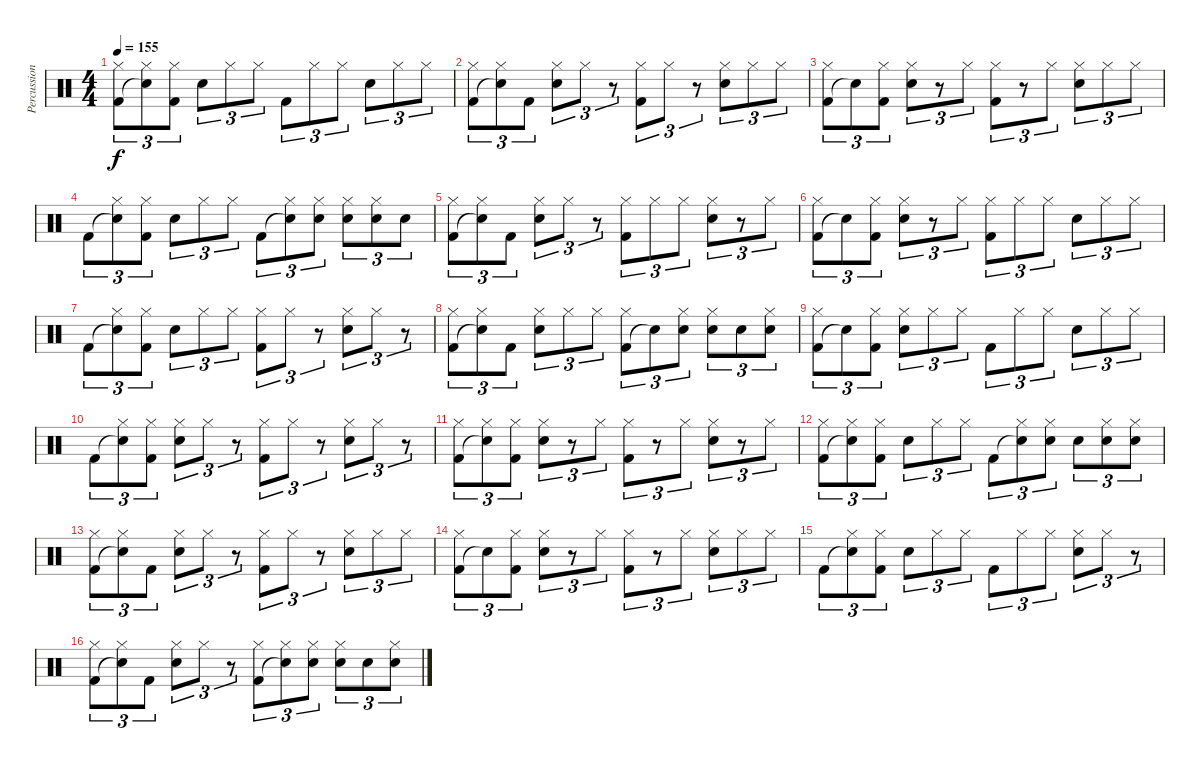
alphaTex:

\track ("Percussion" "Percussion") {instrument percussion}
\staff {score}
\articulation defaults
\ts (4 4)
\tempo 155
\clef neutral
\ks c
("Kick (hit) 2" "Hi-Hat (closed)").8{tu (3 2) dy f} ("Snare (hit)"{t} "Hi-Hat (closed)").8{tu (3 2)} ("Kick (hit) 2" "Hi-Hat (closed)").8{tu (3 2)} "Snare (hit) 2".8{tu (3 2)} "Hi-Hat (closed)".8{tu (3 2)} "Hi-Hat (closed)".8{tu (3 2)} "Kick (hit) 2".8{tu (3 2)} "Hi-Hat (closed)".8{tu (3 2)} "Hi-Hat (closed)".8{tu (3 2)} "Snare (hit) 2".8{tu (3 2)} "Hi-Hat (closed)".8{tu (3 2)} "Hi-Hat (closed)".8{tu (3 2)} |
("Kick (hit) 2" "Hi-Hat (closed)").8{tu (3 2)} ("Snare (hit)"{t} "Hi-Hat (closed)").8{tu (3 2)} "Kick (hit) 2".8{tu (3 2)} ("Snare (hit) 2" "Hi-Hat (closed)").8{tu (3 2)} "Hi-Hat (closed)".8{tu (3 2)} r.8{tu (3 2)} ("Kick (hit) 2" "Hi-Hat (closed)").8{tu (3 2)} "Hi-Hat (closed)".8{tu (3 2)} r.8{tu (3 2)} ("Snare (hit) 2" "Hi-Hat (closed)").8{tu (3 2)} "Hi-Hat (closed)".8{tu (3 2)} "Hi-Hat (closed)".8{tu (3 2)} |
("Kick (hit) 2" "Hi-Hat (closed)").8{tu (3 2)} "Snare (hit)"{t}.8{tu (3 2)} ("Kick (hit) 2" "Hi-Hat (closed)").8{tu (3 2)} ("Snare (hit) 2" "Hi-Hat (closed)").8{tu (3 2)} r.8{tu (3 2)} "Hi-Hat (closed)".8{tu (3 2)} ("Kick (hit) 2" "Hi-Hat (closed)").8{tu (3 2)} r.8{tu (3 2)} "Hi-Hat (closed)".8{tu (3 2)} ("Snare (hit) 2" "Hi-Hat (closed)").8{tu (3 2)} "Hi-Hat (closed)".8{tu (3 2)} "Hi-Hat (closed)".8{tu (3 2)} |
"Kick (hit) 2".8{tu (3 2)} ("Snare (hit)"{t} "Hi-Hat (closed)").8{tu (3 2)} ("Kick (hit) 2" "Hi-Hat (closed)").8{tu (3 2)} "Snare (hit) 2".8{tu (3 2)} "Hi-Hat (closed)".8{tu (3 2)} "Hi-Hat (closed)".8{tu (3 2)} "Kick (hit) 2".8{tu (3 2)} ("Snare (hit)"{t} "Hi-Hat (closed)").8{tu (3 2)} ("Snare (hit) 2" "Hi-Hat (closed)").8{tu (3 2)} ("Snare (hit) 2" "Hi-Hat (closed)").8{tu (3 2)} ("Snare (hit) 2" "Hi-Hat (closed)").8{tu (3 2)} "Snare (hit) 2".8{tu (3 2)} |
("Kick (hit) 2" "Hi-Hat (closed)").8{tu (3 2)} ("Snare (hit)"{t} "Hi-Hat (closed)").8{tu (3 2)} "Kick (hit) 2".8{tu (3 2)} ("Snare (hit) 2" "Hi-Hat (closed)").8{tu (3 2)} "Hi-Hat (closed)".8{tu (3 2)} r.8{tu (3 2)} ("Kick (hit) 2" "Hi-Hat (closed)").8{tu (3 2)} "Hi-Hat (closed)".8{tu (3 2)} "Hi-Hat (closed)".8{tu (3 2)} ("Snare (hit) 2" "Hi-Hat (closed)").8{tu (3 2)} r.8{tu (3 2)} "Hi-Hat (closed)".8{tu (3 2)} |
("Kick (hit) 2" "Hi-Hat (closed)").8{tu (3 2)} "Snare (hit)"{t}.8{tu (3 2)} ("Kick (hit) 2" "Hi-Hat (closed)").8{tu (3 2)} ("Snare (hit) 2" "Hi-Hat (closed)").8{tu (3 2)} r.8{tu (3 2)} "Hi-Hat (closed)".8{tu (3 2)} ("Kick (hit) 2" "Hi-Hat (closed)").8{tu (3 2)} "Hi-Hat (closed)".8{tu (3 2)} "Hi-Hat (closed)".8{tu (3 2)} "Snare (hit) 2".8{tu (3 2)} "Hi-Hat (closed)".8{tu (3 2)} "Hi-Hat (closed)".8{tu (3 2)} |
"Kick (hit) 2".8{tu (3 2)} ("Snare (hit)"{t} "Hi-Hat (closed)").8{tu (3 2)} ("Kick (hit) 2" "Hi-Hat (closed)").8{tu (3 2)} "Snare (hit) 2".8{tu (3 2)} "Hi-Hat (closed)".8{tu (3 2)} "Hi-Hat (closed)".8{tu (3 2)} ("Kick (hit) 2" "Hi-Hat (closed)").8{tu (3 2)} "Hi-Hat (closed)".8{tu (3 2)} r.8{tu (3 2)} ("Snare (hit) 2" "Hi-Hat (closed)").8{tu (3 2)} "Hi-Hat (closed)".8{tu (3 2)} r.8{tu (3 2)} |
("Kick (hit) 2" "Hi-Hat (closed)").8{tu (3 2)} ("Snare (hit)"{t} "Hi-Hat (closed)").8{tu (3 2)} "Kick (hit) 2".8{tu (3 2)} ("Snare (hit) 2" "Hi-Hat (closed)").8{tu (3 2)} "Hi-Hat (closed)".8{tu (3 2)} "Hi-Hat (closed)".8{tu (3 2)} ("Kick (hit) 2" "Hi-Hat (closed)").8{tu (3 2)} "Snare (hit)"{t}.8{tu (3 2)} ("Snare (hit) 2" "Hi-Hat (closed)").8{tu (3 2)} ("Snare (hit) 2" "Hi-Hat (closed)").8{tu (3 2)} "Snare (hit) 2".8{tu (3 2)} ("Snare (hit) 2" "Hi-Hat (closed)").8{tu (3 2)} |
("Kick (hit) 2" "Hi-Hat (closed)").8{tu (3 2)} "Snare (hit)"{t}.8{tu (3 2)} ("Kick (hit) 2" "Hi-Hat (closed)").8{tu (3 2)} ("Snare (hit) 2" "Hi-Hat (closed)").8{tu (3 2)} "Hi-Hat (closed)".8{tu (3 2)} "Hi-Hat (closed)".8{tu (3 2)} "Kick (hit) 2".8{tu (3 2)} "Hi-Hat (closed)".8{tu (3 2)} "Hi-Hat (closed)".8{tu (3 2)} "Snare (hit) 2".8{tu (3 2)} "Hi-Hat (closed)".8{tu (3 2)} "Hi-Hat (closed)".8{tu (3 2)} |
"Kick (hit) 2".8{tu (3 2)} ("Snare (hit)"{t} "Hi-Hat (closed)").8{tu (3 2)} ("Kick (hit) 2" "Hi-Hat (closed)").8{tu (3 2)} ("Snare (hit) 2" "Hi-Hat (closed)").8{tu (3 2)} "Hi-Hat (closed)".8{tu (3 2)} r.8{tu (3 2)} ("Kick (hit) 2" "Hi-Hat (closed)").8{tu (3 2)} "Hi-Hat (closed)".8{tu (3 2)} r.8{tu (3 2)} ("Snare (hit) 2" "Hi-Hat (closed)").8{tu (3 2)} "Hi-Hat (closed)".8{tu (3 2)} r.8{tu (3 2)} |
("Kick (hit) 2" "Hi-Hat (closed)").8{tu (3 2)} ("Snare (hit)"{t} "Hi-Hat (closed)").8{tu (3 2)} ("Kick (hit) 2" "Hi-Hat (closed)").8{tu (3 2)} ("Snare (hit) 2" "Hi-Hat (closed)").8{tu (3 2)} r.8{tu (3 2)} "Hi-Hat (closed)".8{tu (3 2)} ("Kick (hit) 2" "Hi-Hat (closed)").8{tu (3 2)} r.8{tu (3 2)} "Hi-Hat (closed)".8{tu (3 2)} ("Snare (hit) 2" "Hi-Hat (closed)").8{tu (3 2)} r.8{tu (3 2)} "Hi-Hat (closed)".8{tu (3 2)} |
("Kick (hit) 2" "Hi-Hat (closed)").8{tu (3 2)} ("Snare (hit)"{t} "Hi-Hat (closed)").8{tu (3 2)} ("Kick (hit) 2" "Hi-Hat (closed)").8{tu (3 2)} "Snare (hit) 2".8{tu (3 2)} "Hi-Hat (closed)".8{tu (3 2)} "Hi-Hat (closed)".8{tu (3 2)} "Kick (hit) 2".8{tu (3 2)} ("Snare (hit)"{t} "Hi-Hat (closed)").8{tu (3 2)} ("Snare (hit) 2" "Hi-Hat (closed)").8{tu (3 2)} "Snare (hit) 2".8{tu (3 2)} ("Snare (hit) 2" "Hi-Hat (closed)").8{tu (3 2)} ("Snare (hit) 2" "Hi-Hat (closed)").8{tu (3 2)} |
("Kick (hit) 2" "Hi-Hat (closed)").8{tu (3 2)} ("Snare (hit)"{t} "Hi-Hat (closed)").8{tu (3 2)} "Kick (hit) 2".8{tu (3 2)} ("Snare (hit) 2" "Hi-Hat (closed)").8{tu (3 2)} "Hi-Hat (closed)".8{tu (3 2)} r.8{tu (3 2)} ("Kick (hit) 2" "Hi-Hat (closed)").8{tu (3 2)} "Hi-Hat (closed)".8{tu (3 2)} r.8{tu (3 2)} ("Snare (hit) 2" "Hi-Hat (closed)").8{tu (3 2)} "Hi-Hat (closed)".8{tu (3 2)} "Hi-Hat (closed)".8{tu (3 2)} |
("Kick (hit) 2" "Hi-Hat (closed)").8{tu (3 2)} "Snare (hit)"{t}.8{tu (3 2)} ("Kick (hit) 2" "Hi-Hat (closed)").8{tu (3 2)} ("Snare (hit) 2" "Hi-Hat (closed)").8{tu (3 2)} r.8{tu (3 2)} "Hi-Hat (closed)".8{tu (3 2)} ("Kick (hit) 2" "Hi-Hat (closed)").8{tu (3 2)} r.8{tu (3 2)} "Hi-Hat (closed)".8{tu (3 2)} ("Snare (hit) 2" "Hi-Hat (closed)").8{tu (3 2)} "Hi-Hat (closed)".8{tu (3 2)} "Hi-Hat (closed)".8{tu (3 2)} |
"Kick (hit) 2".8{tu (3 2)} ("Snare (hit)"{t} "Hi-Hat (closed)").8{tu (3 2)} ("Kick (hit) 2" "Hi-Hat (closed)").8{tu (3 2)} "Snare (hit) 2".8{tu (3 2)} "Hi-Hat (closed)".8{tu (3 2)} "Hi-Hat (closed)".8{tu (3 2)} "Kick (hit) 2".8{tu (3 2)} "Hi-Hat (closed)".8{tu (3 2)} "Hi-Hat (closed)".8{tu (3 2)} ("Snare (hit) 2" "Hi-Hat (closed)").8{tu (3 2)} "Hi-Hat (closed)".8{tu (3 2)} r.8{tu (3 2)} |
("Kick (hit) 2" "Hi-Hat (closed)").8{tu (3 2)} ("Snare (hit)"{t} "Hi-Hat (closed)").8{tu (3 2)} "Kick (hit) 2".8{tu (3 2)} ("Snare (hit) 2" "Hi-Hat (closed)").8{tu (3 2)} "Hi-Hat (closed)".8{tu (3 2)} r.8{tu (3 2)} ("Kick (hit) 2" "Hi-Hat (closed)").8{tu (3 2)} ("Snare (hit)"{t} "Hi-Hat (closed)").8{tu (3 2)} ("Snare (hit) 2" "Hi-Hat (closed)").8{tu (3 2)} ("Snare (hit) 2" "Hi-Hat (closed)").8{tu (3 2)} "Snare (hit) 2".8{tu (3 2)} ("Snare (hit) 2" "Hi-Hat (closed)").8{tu (3 2)}
